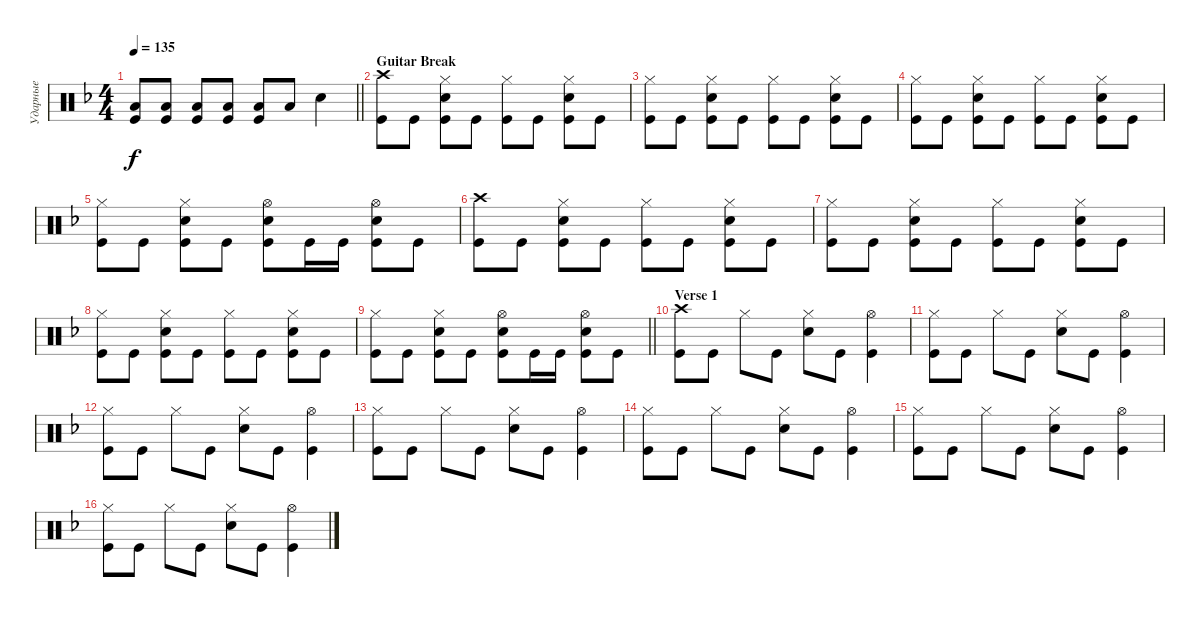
\track ("Ударные" "Ударные") {instrument percussion}
\staff {score}
\articulation defaults
\ts (4 4)
\tempo 135
\clef neutral
\barLineRight lightlight
\ks dminor
("Kick (hit)" "Low Floor Tom (hit)").8{dy f} ("Kick (hit)" "Low Floor Tom (hit)").8 ("Kick (hit)" "Low Floor Tom (hit)").8 ("Kick (hit)" "Low Floor Tom (hit)").8 ("Kick (hit)" "Low Floor Tom (hit)").8 "Low Floor Tom (hit)".8 "Snare (hit) 2".4 |
\section ("" "Guitar Break")
("Kick (hit)" "Crash high (hit)").8 "Kick (hit)".8 ("Kick (hit)" "Snare (hit) 2" "Hi-Hat (closed)").8 "Kick (hit)".8 ("Kick (hit)" "Hi-Hat (closed)").8 "Kick (hit)".8 ("Kick (hit)" "Hi-Hat (closed)" "Snare (hit) 2").8 "Kick (hit)".8 |
("Kick (hit)" "Hi-Hat (closed)").8 "Kick (hit)".8 ("Kick (hit)" "Snare (hit) 2" "Hi-Hat (closed)").8 "Kick (hit)".8 ("Kick (hit)" "Hi-Hat (closed)").8 "Kick (hit)".8 ("Kick (hit)" "Hi-Hat (closed)" "Snare (hit) 2").8 "Kick (hit)".8 |
("Kick (hit)" "Hi-Hat (closed)").8 "Kick (hit)".8 ("Kick (hit)" "Snare (hit) 2" "Hi-Hat (closed)").8 "Kick (hit)".8 ("Kick (hit)" "Hi-Hat (closed)").8 "Kick (hit)".8 ("Kick (hit)" "Hi-Hat (closed)" "Snare (hit) 2").8 "Kick (hit)".8 |
("Kick (hit)" "Hi-Hat (closed)").8 "Kick (hit)".8 ("Kick (hit)" "Snare (hit) 2" "Hi-Hat (closed)").8 "Kick (hit)".8 ("Kick (hit)" "Snare (hit) 2" "Hi-Hat (open)").8 "Kick (hit)".16 "Kick (hit)".16 ("Hi-Hat (open)" "Kick (hit)" "Snare (hit) 2").8 "Kick (hit)".8 |
("Kick (hit)" "Crash high (hit)").8 "Kick (hit)".8 ("Kick (hit)" "Snare (hit) 2" "Hi-Hat (closed)").8 "Kick (hit)".8 ("Kick (hit)" "Hi-Hat (closed)").8 "Kick (hit)".8 ("Kick (hit)" "Hi-Hat (closed)" "Snare (hit) 2").8 "Kick (hit)".8 |
("Kick (hit)" "Hi-Hat (closed)").8 "Kick (hit)".8 ("Kick (hit)" "Snare (hit) 2" "Hi-Hat (closed)").8 "Kick (hit)".8 ("Kick (hit)" "Hi-Hat (closed)").8 "Kick (hit)".8 ("Kick (hit)" "Hi-Hat (closed)" "Snare (hit) 2").8 "Kick (hit)".8 |
("Kick (hit)" "Hi-Hat (closed)").8 "Kick (hit)".8 ("Kick (hit)" "Snare (hit) 2" "Hi-Hat (closed)").8 "Kick (hit)".8 ("Kick (hit)" "Hi-Hat (closed)").8 "Kick (hit)".8 ("Kick (hit)" "Hi-Hat (closed)" "Snare (hit) 2").8 "Kick (hit)".8 |
\barLineRight lightlight
("Kick (hit)" "Hi-Hat (closed)").8 "Kick (hit)".8 ("Kick (hit)" "Snare (hit) 2" "Hi-Hat (closed)").8 "Kick (hit)".8 ("Kick (hit)" "Snare (hit) 2" "Hi-Hat (open)").8 "Kick (hit)".16 "Kick (hit)".16 ("Hi-Hat (open)" "Kick (hit)" "Snare (hit) 2").8 "Kick (hit)".8 |
\section ("" "Verse 1")
("Kick (hit)" "Crash high (hit)").8 "Kick (hit)".8 "Hi-Hat (closed)".8 "Kick (hit)".8 ("Snare (hit) 2" "Hi-Hat (closed)").8 "Kick (hit)".8 ("Kick (hit)" "Hi-Hat (open)").4 |
("Kick (hit)" "Hi-Hat (closed)").8 "Kick (hit)".8 "Hi-Hat (closed)".8 "Kick (hit)".8 ("Snare (hit) 2" "Hi-Hat (closed)").8 "Kick (hit)".8 ("Kick (hit)" "Hi-Hat (open)").4 |
("Kick (hit)" "Hi-Hat (closed)").8 "Kick (hit)".8 "Hi-Hat (closed)".8 "Kick (hit)".8 ("Snare (hit) 2" "Hi-Hat (closed)").8 "Kick (hit)".8 ("Kick (hit)" "Hi-Hat (open)").4 |
("Kick (hit)" "Hi-Hat (closed)").8 "Kick (hit)".8 "Hi-Hat (closed)".8 "Kick (hit)".8 ("Snare (hit) 2" "Hi-Hat (closed)").8 "Kick (hit)".8 ("Kick (hit)" "Hi-Hat (open)").4 |
("Kick (hit)" "Hi-Hat (closed)").8 "Kick (hit)".8 "Hi-Hat (closed)".8 "Kick (hit)".8 ("Snare (hit) 2" "Hi-Hat (closed)").8 "Kick (hit)".8 ("Kick (hit)" "Hi-Hat (open)").4 |
("Kick (hit)" "Hi-Hat (closed)").8 "Kick (hit)".8 "Hi-Hat (closed)".8 "Kick (hit)".8 ("Snare (hit) 2" "Hi-Hat (closed)").8 "Kick (hit)".8 ("Kick (hit)" "Hi-Hat (open)").4 |
("Kick (hit)" "Hi-Hat (closed)").8 "Kick (hit)".8 "Hi-Hat (closed)".8 "Kick (hit)".8 ("Snare (hit) 2" "Hi-Hat (closed)").8 "Kick (hit)".8 ("Kick (hit)" "Hi-Hat (open)").4
